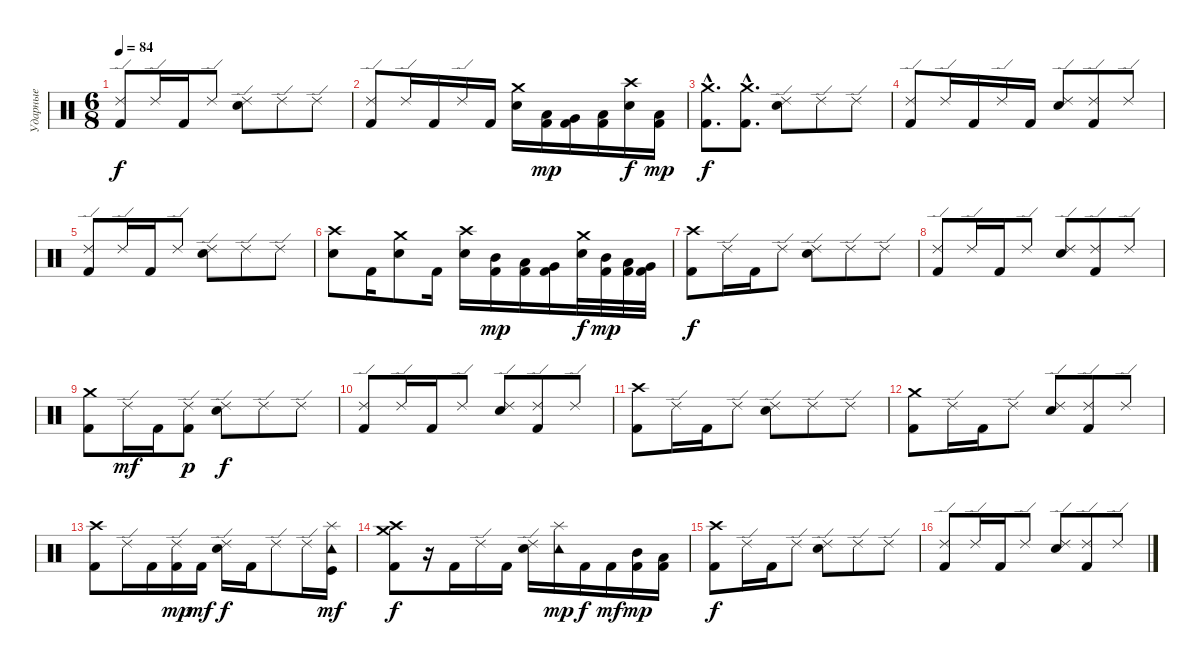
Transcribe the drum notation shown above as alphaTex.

\track ("Ударные" "Ударные") {instrument percussion}
\staff {score}
\articulation defaults
\ts (6 8)
\tempo 84
\clef neutral
\ks c
("Ride (edge) 2" "Kick (hit) 2").8{dy f} "Ride (edge) 2".16 "Kick (hit) 2".16 "Ride (edge) 2".8 ("Ride (edge) 2" "Electric Snare (hit)").8 "Ride (edge) 2".8 "Ride (edge) 2".8 |
("Ride (edge) 2" "Kick (hit) 2").8 "Ride (edge) 2".16 "Kick (hit) 2".16 "Ride (edge) 2".16 "Kick (hit) 2".16 ("Crash medium (hit)" "Electric Snare (hit)").16 ("Low Tom (hit)" "Kick (hit) 2").16{dy mp} ("Very Low Tom (hit)" "Kick (hit) 2").16 ("Low Floor Tom (hit)" "Kick (hit) 2").16 ("Crash high (hit)" "Electric Snare (hit)").16{dy f} ("Low Tom (hit)" "Kick (hit) 2").16{dy mp} |
("Crash medium (hit)"{hac} "Kick (hit) 2"{hac}).8{d dy f} ("Crash medium (hit)"{hac} "Kick (hit) 2"{hac}).8{d} ("Ride (edge) 2" "Electric Snare (hit)").8 "Ride (edge) 2".8 "Ride (edge) 2".8 |
("Ride (edge) 2" "Kick (hit) 2").8 "Ride (edge) 2".16 "Kick (hit) 2".16 "Ride (edge) 2".16 "Kick (hit) 2".16 ("Ride (edge) 2" "Electric Snare (hit)").8 ("Ride (edge) 2" "Kick (hit) 2").8 "Ride (edge) 2".8 |
("Ride (edge) 2" "Kick (hit) 2").8 "Ride (edge) 2".16 "Kick (hit) 2".16 "Ride (edge) 2".8 ("Ride (edge) 2" "Electric Snare (hit)").8 "Ride (edge) 2".8 "Ride (edge) 2".8 |
("Crash high (hit)" "Electric Snare (hit)").8 "Kick (hit) 2".16 ("Crash medium (hit)" "Electric Snare (hit)").8 "Kick (hit) 2".16 ("Crash high (hit)" "Electric Snare (hit)").16 ("Mid Tom (hit)" "Kick (hit) 2").16{dy mp} ("Low Tom (hit)" "Kick (hit) 2").16 ("Very Low Tom (hit)" "Kick (hit) 2").16 ("Crash medium (hit)" "Electric Snare (hit)").32{dy f} ("Mid Tom (hit)" "Kick (hit) 2").32{dy mp} ("Low Tom (hit)" "Kick (hit) 2").32 ("Very Low Tom (hit)" "Kick (hit) 2").32 |
\section ("" "")
("Crash high (hit)" "Kick (hit) 2").8{dy f} "Ride (edge) 2".16 "Kick (hit) 2".16 "Ride (edge) 2".8 ("Ride (edge) 2" "Electric Snare (hit)").8 "Ride (edge) 2".8 "Ride (edge) 2".8 |
("Ride (edge) 2" "Kick (hit) 2").8 "Ride (edge) 2".16 "Kick (hit) 2".16 "Ride (edge) 2".8 ("Ride (edge) 2" "Electric Snare (hit)").8 ("Ride (edge) 2" "Kick (hit) 2").8 "Ride (edge) 2".8 |
("Crash medium (hit)" "Kick (hit) 2").8 "Ride (edge) 2".16{dy mf} "Kick (hit) 2".16 ("Ride (edge) 2" "Kick (hit) 2").8{dy p} ("Ride (edge) 2" "Electric Snare (hit)").8{dy f} "Ride (edge) 2".8 "Ride (edge) 2".8 |
("Ride (edge) 2" "Kick (hit) 2").8 "Ride (edge) 2".16 "Kick (hit) 2".16 "Ride (edge) 2".8 ("Ride (edge) 2" "Electric Snare (hit)").8 ("Ride (edge) 2" "Kick (hit) 2").8 "Ride (edge) 2".8 |
("Crash high (hit)" "Kick (hit) 2").8 "Ride (edge) 2".16 "Kick (hit) 2".16 "Ride (edge) 2".8 ("Ride (edge) 2" "Electric Snare (hit)").8 "Ride (edge) 2".8 "Ride (edge) 2".8 |
("Crash medium (hit)" "Kick (hit) 2").8 "Ride (edge) 2".16 "Kick (hit) 2".16 "Ride (edge) 2".8 ("Ride (edge) 2" "Electric Snare (hit)").8 ("Ride (edge) 2" "Kick (hit) 2").8 "Ride (edge) 2".8 |
("Crash high (hit)" "Kick (hit) 2").8 "Ride (edge) 2".16 "Kick (hit) 2".16 ("Ride (edge) 2" "Kick (hit) 2").16{dy mp} "Kick (hit) 2".16{dy mf} ("Ride (edge) 2" "Electric Snare (hit)").16{dy f} "Kick (hit) 2".16 "Ride (edge) 2".8 "Ride (edge) 2".16 ("Splash (hit)" "Tambourine (hit)" "Kick (hit)").16{dy mf} |
("Crash medium (hit)" "Crash high (hit)" "Kick (hit) 2").8{dy f} r.16 "Kick (hit) 2".16 "Ride (edge) 2".16 "Kick (hit) 2".16 ("Ride (edge) 2" "Electric Snare (hit)").16 ("Splash (hit)" "Tambourine (hit)").16{dy mp} "Kick (hit) 2".16{dy f} "Kick (hit) 2".16{dy mf} ("Mid Tom (hit)" "Kick (hit) 2").16{dy mp} ("Low Tom (hit)" "Kick (hit) 2").16 |
("Crash high (hit)" "Kick (hit) 2").8{dy f} "Ride (edge) 2".16 "Kick (hit) 2".16 "Ride (edge) 2".8 ("Ride (edge) 2" "Electric Snare (hit)").8 "Ride (edge) 2".8 "Ride (edge) 2".8 |
("Ride (edge) 2" "Kick (hit) 2").8 "Ride (edge) 2".16 "Kick (hit) 2".16 "Ride (edge) 2".8 ("Ride (edge) 2" "Electric Snare (hit)").8 ("Ride (edge) 2" "Kick (hit) 2").8 "Ride (edge) 2".8
